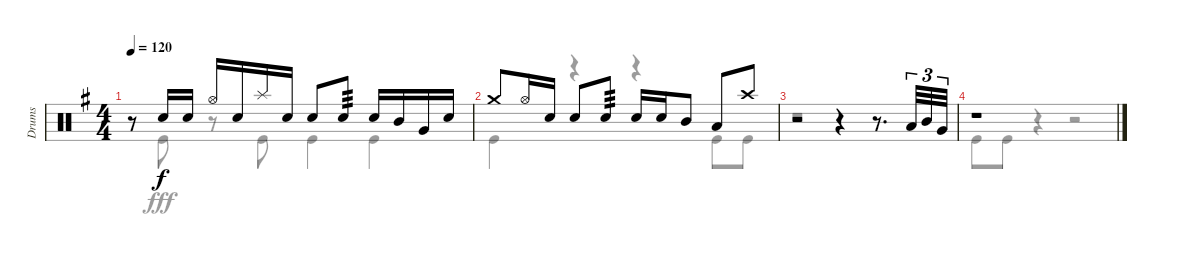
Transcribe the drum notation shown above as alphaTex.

\track ("Drums" "Drums") {instrument percussion}
\staff {score}
\articulation defaults
\voice
\ts (4 4)
\tempo 120
\clef neutral
\ks g
r.8{dy f} "Snare (hit) 2".16 "Snare (hit) 2".16 "Hi-Hat (open)".16 "Snare (hit) 2".16 "Splash (hit)".16 "Snare (hit) 2".16 "Snare (hit) 2".8 "Snare (hit) 2".8{tp 3} "Snare (hit) 2".16 "Mid Tom (hit)".16 "Very Low Tom (hit)".16 "Snare (hit) 2".16 |
"Crash medium (hit)".8 "Hi-Hat (open)".16 "Snare (hit) 2".16 "Snare (hit) 2".8 "Snare (hit) 2".8{tp 3} "Snare (hit) 2".16 "Snare (hit) 2".16 "Mid Tom (hit)".8 "Low Tom (hit)".8 "Crash high (hit)".8 |
r.2 r.4 r.8{d} "Low Tom (hit)".32{tu (3 2)} "Mid Tom (hit)".32{tu (3 2)} "Very Low Tom (hit)".32{tu (3 2)} |
r.1
\voice
\clef neutral
\ottava regular
\simile none
\ks g
r.8{dy fff} "Kick (hit)".8 r.8 "Kick (hit)".8 "Kick (hit)".4 "Kick (hit)".4 |
"Kick (hit)".4 r.4 r.4 "Kick (hit)".8 "Kick (hit)".8 |
r.1 |
"Kick (hit)".8 "Kick (hit)".8 r.4 r.2
